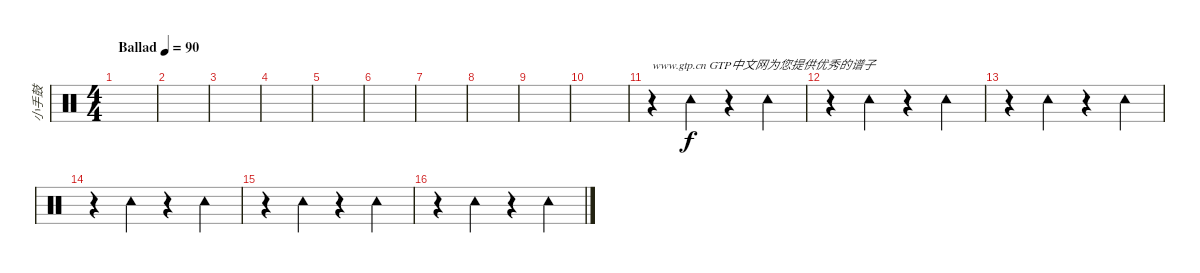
\track ("小手鼓" "小手鼓") {instrument percussion}
\staff {score}
\articulation defaults
\ts (4 4)
\tempo (90 "Ballad")
\clef neutral
\ks c
|
|
|
|
|
|
|
|
|
|
r.4{txt "www.gtp.cn GTP中文网为您提供优秀的谱子"} "Tambourine (hit)".4 r.4 "Tambourine (hit)".4 |
r.4 "Tambourine (hit)".4 r.4 "Tambourine (hit)".4 |
r.4 "Tambourine (hit)".4 r.4 "Tambourine (hit)".4 |
r.4 "Tambourine (hit)".4 r.4 "Tambourine (hit)".4 |
r.4 "Tambourine (hit)".4 r.4 "Tambourine (hit)".4 |
r.4 "Tambourine (hit)".4 r.4 "Tambourine (hit)".4
